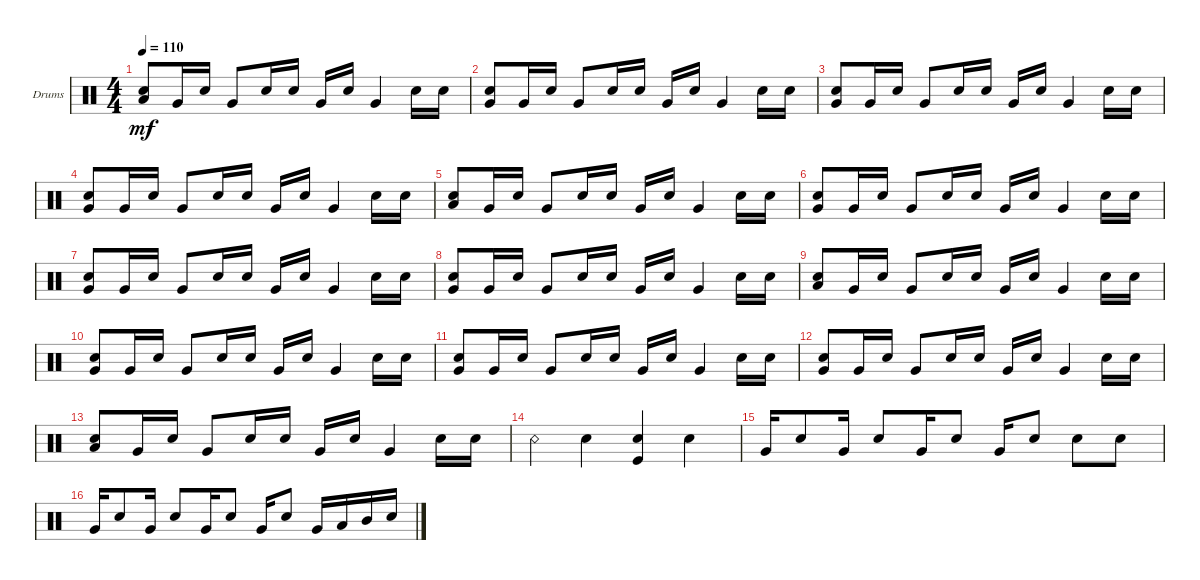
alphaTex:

\defaultSystemsLayout 4
\bracketExtendMode groupsimilarinstruments
\firstSystemTrackNameOrientation horizontal
\otherSystemsTrackNameOrientation horizontal
\track ("Drumkit" "Drums") {instrument percussion}
\staff {score}
\articulation defaults
\ts (4 4)
\tempo 110
\clef neutral
\ks c
("Snare (hit) 2" "Low Tom (hit)").8{dy mf} "Very Low Tom (hit)".16 "Snare (hit) 2".16 "Very Low Tom (hit)".8 "Snare (hit) 2".16 "Snare (hit) 2".16 "Very Low Tom (hit)".16 "Snare (hit) 2".16 "Very Low Tom (hit)".4 "Snare (hit) 2".16 "Snare (hit) 2".16 |
("Snare (hit) 2" "Very Low Tom (hit)").8 "Very Low Tom (hit)".16 "Snare (hit) 2".16 "Very Low Tom (hit)".8 "Snare (hit) 2".16 "Snare (hit) 2".16 "Very Low Tom (hit)".16 "Snare (hit) 2".16 "Very Low Tom (hit)".4 "Snare (hit) 2".16 "Snare (hit) 2".16 |
("Snare (hit) 2" "Very Low Tom (hit)").8 "Very Low Tom (hit)".16 "Snare (hit) 2".16 "Very Low Tom (hit)".8 "Snare (hit) 2".16 "Snare (hit) 2".16 "Very Low Tom (hit)".16 "Snare (hit) 2".16 "Very Low Tom (hit)".4 "Snare (hit) 2".16 "Snare (hit) 2".16 |
("Snare (hit) 2" "Very Low Tom (hit)").8 "Very Low Tom (hit)".16 "Snare (hit) 2".16 "Very Low Tom (hit)".8 "Snare (hit) 2".16 "Snare (hit) 2".16 "Very Low Tom (hit)".16 "Snare (hit) 2".16 "Very Low Tom (hit)".4 "Snare (hit) 2".16 "Snare (hit) 2".16 |
("Snare (hit) 2" "Low Tom (hit)").8 "Very Low Tom (hit)".16 "Snare (hit) 2".16 "Very Low Tom (hit)".8 "Snare (hit) 2".16 "Snare (hit) 2".16 "Very Low Tom (hit)".16 "Snare (hit) 2".16 "Very Low Tom (hit)".4 "Snare (hit) 2".16 "Snare (hit) 2".16 |
("Snare (hit) 2" "Very Low Tom (hit)").8 "Very Low Tom (hit)".16 "Snare (hit) 2".16 "Very Low Tom (hit)".8 "Snare (hit) 2".16 "Snare (hit) 2".16 "Very Low Tom (hit)".16 "Snare (hit) 2".16 "Very Low Tom (hit)".4 "Snare (hit) 2".16 "Snare (hit) 2".16 |
("Snare (hit) 2" "Very Low Tom (hit)").8 "Very Low Tom (hit)".16 "Snare (hit) 2".16 "Very Low Tom (hit)".8 "Snare (hit) 2".16 "Snare (hit) 2".16 "Very Low Tom (hit)".16 "Snare (hit) 2".16 "Very Low Tom (hit)".4 "Snare (hit) 2".16 "Snare (hit) 2".16 |
("Snare (hit) 2" "Very Low Tom (hit)").8 "Very Low Tom (hit)".16 "Snare (hit) 2".16 "Very Low Tom (hit)".8 "Snare (hit) 2".16 "Snare (hit) 2".16 "Very Low Tom (hit)".16 "Snare (hit) 2".16 "Very Low Tom (hit)".4 "Snare (hit) 2".16 "Snare (hit) 2".16 |
("Snare (hit) 2" "Low Tom (hit)").8 "Very Low Tom (hit)".16 "Snare (hit) 2".16 "Very Low Tom (hit)".8 "Snare (hit) 2".16 "Snare (hit) 2".16 "Very Low Tom (hit)".16 "Snare (hit) 2".16 "Very Low Tom (hit)".4 "Snare (hit) 2".16 "Snare (hit) 2".16 |
("Snare (hit) 2" "Very Low Tom (hit)").8 "Very Low Tom (hit)".16 "Snare (hit) 2".16 "Very Low Tom (hit)".8 "Snare (hit) 2".16 "Snare (hit) 2".16 "Very Low Tom (hit)".16 "Snare (hit) 2".16 "Very Low Tom (hit)".4 "Snare (hit) 2".16 "Snare (hit) 2".16 |
("Snare (hit) 2" "Very Low Tom (hit)").8 "Very Low Tom (hit)".16 "Snare (hit) 2".16 "Very Low Tom (hit)".8 "Snare (hit) 2".16 "Snare (hit) 2".16 "Very Low Tom (hit)".16 "Snare (hit) 2".16 "Very Low Tom (hit)".4 "Snare (hit) 2".16 "Snare (hit) 2".16 |
("Snare (hit) 2" "Very Low Tom (hit)").8 "Very Low Tom (hit)".16 "Snare (hit) 2".16 "Very Low Tom (hit)".8 "Snare (hit) 2".16 "Snare (hit) 2".16 "Very Low Tom (hit)".16 "Snare (hit) 2".16 "Very Low Tom (hit)".4 "Snare (hit) 2".16 "Snare (hit) 2".16 |
("Snare (hit) 2" "Low Tom (hit)").8 "Very Low Tom (hit)".16 "Snare (hit) 2".16 "Very Low Tom (hit)".8 "Snare (hit) 2".16 "Snare (hit) 2".16 "Very Low Tom (hit)".16 "Snare (hit) 2".16 "Very Low Tom (hit)".4 "Snare (hit) 2".16 "Snare (hit) 2".16 |
"Snare (rim shot)".4 "Snare (hit) 2".4 ("Snare (hit) 2" "Kick (hit)").4 "Snare (hit) 2".4 |
"Very Low Tom (hit)".16 "Snare (hit) 2".8 "Very Low Tom (hit)".16 "Snare (hit) 2".8 "Very Low Tom (hit)".16 "Snare (hit) 2".8 "Very Low Tom (hit)".16 "Snare (hit) 2".8 "Snare (hit) 2".8 "Snare (hit) 2".8 |
"Very Low Tom (hit)".16 "Snare (hit) 2".8 "Very Low Tom (hit)".16 "Snare (hit) 2".8 "Very Low Tom (hit)".16 "Snare (hit) 2".8 "Very Low Tom (hit)".16 "Snare (hit) 2".8 "Very Low Tom (hit)".16 "Low Tom (hit)".16 "Mid Tom (hit)".16 "Snare (hit) 2".16
